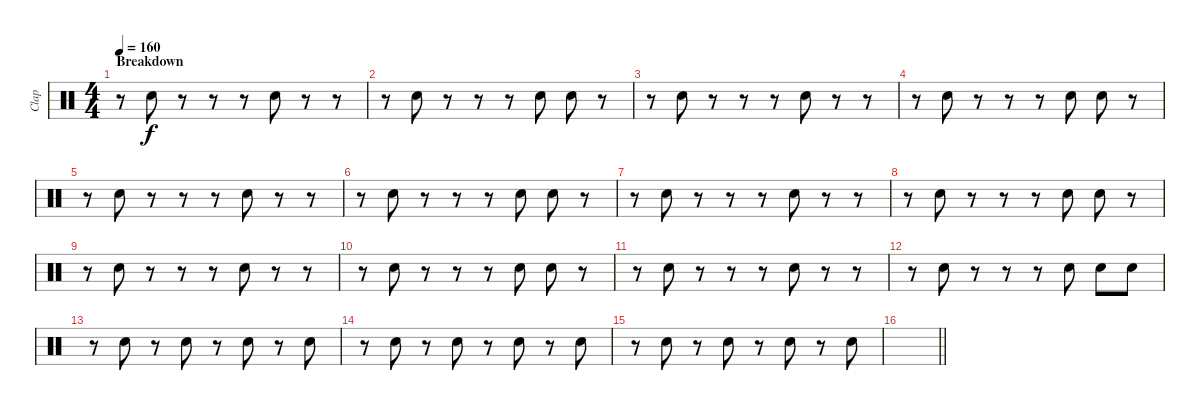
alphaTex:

\track ("Clap" "Clap") {instrument percussion}
\staff {score}
\articulation defaults
\ts (4 4)
\section ("" "Breakdown")
\tempo 160
\clef neutral
\ks c
r.8{dy f} "Hand Clap (hit)".8 r.8 r.8 r.8 "Hand Clap (hit)".8 r.8 r.8 |
r.8 "Hand Clap (hit)".8 r.8 r.8 r.8 "Hand Clap (hit)".8 "Hand Clap (hit)".8 r.8 |
r.8 "Hand Clap (hit)".8 r.8 r.8 r.8 "Hand Clap (hit)".8 r.8 r.8 |
r.8 "Hand Clap (hit)".8 r.8 r.8 r.8 "Hand Clap (hit)".8 "Hand Clap (hit)".8 r.8 |
r.8 "Hand Clap (hit)".8 r.8 r.8 r.8 "Hand Clap (hit)".8 r.8 r.8 |
r.8 "Hand Clap (hit)".8 r.8 r.8 r.8 "Hand Clap (hit)".8 "Hand Clap (hit)".8 r.8 |
r.8 "Hand Clap (hit)".8 r.8 r.8 r.8 "Hand Clap (hit)".8 r.8 r.8 |
r.8 "Hand Clap (hit)".8 r.8 r.8 r.8 "Hand Clap (hit)".8 "Hand Clap (hit)".8 r.8 |
r.8 "Hand Clap (hit)".8 r.8 r.8 r.8 "Hand Clap (hit)".8 r.8 r.8 |
r.8 "Hand Clap (hit)".8 r.8 r.8 r.8 "Hand Clap (hit)".8 "Hand Clap (hit)".8 r.8 |
r.8 "Hand Clap (hit)".8 r.8 r.8 r.8 "Hand Clap (hit)".8 r.8 r.8 |
r.8 "Hand Clap (hit)".8 r.8 r.8 r.8 "Hand Clap (hit)".8 "Hand Clap (hit)".8 "Hand Clap (hit)".8 |
r.8 "Hand Clap (hit)".8 r.8 "Hand Clap (hit)".8 r.8 "Hand Clap (hit)".8 r.8 "Hand Clap (hit)".8 |
r.8 "Hand Clap (hit)".8 r.8 "Hand Clap (hit)".8 r.8 "Hand Clap (hit)".8 r.8 "Hand Clap (hit)".8 |
r.8 "Hand Clap (hit)".8 r.8 "Hand Clap (hit)".8 r.8 "Hand Clap (hit)".8 r.8 "Hand Clap (hit)".8 |
\barLineRight lightlight
